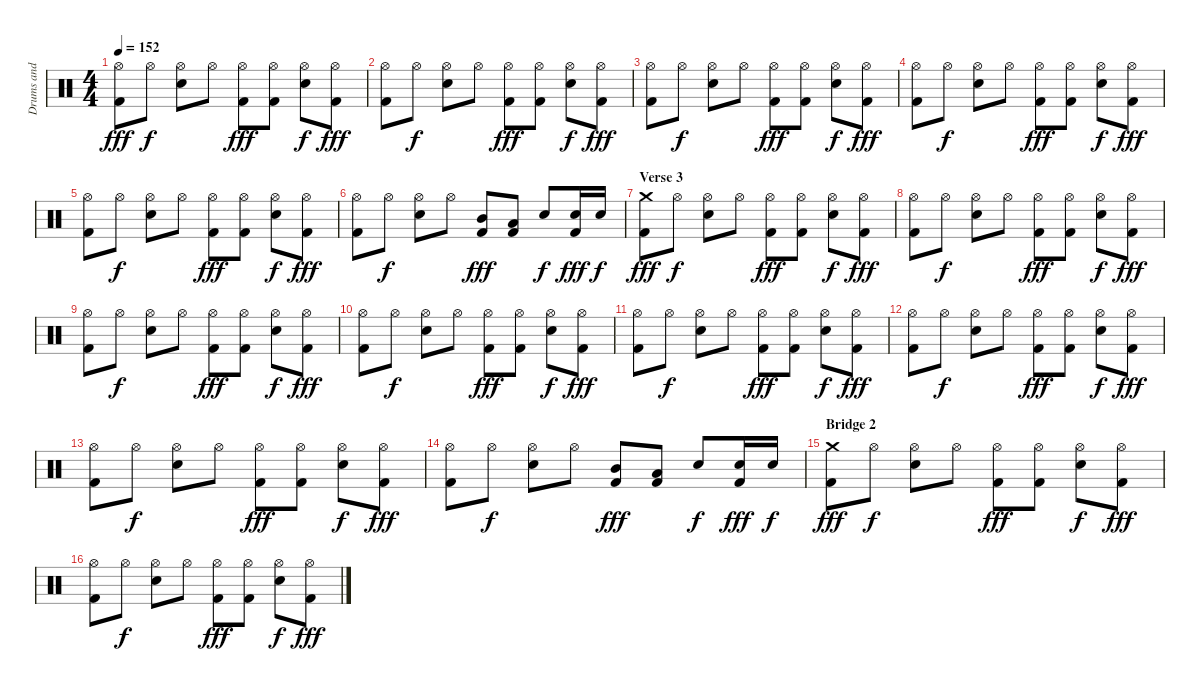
\track ("Drums and Percussion" "Drums and ") {instrument percussion}
\staff {score}
\articulation defaults
\ts (4 4)
\tempo 152
\clef neutral
\ks c
("Hi-Hat (open)" "Kick (hit) 2").8{dy fff} "Hi-Hat (open)".8{dy f} ("Hi-Hat (open)" "Snare (hit) 2").8 "Hi-Hat (open)".8 ("Hi-Hat (open)" "Kick (hit) 2").8{dy fff} ("Hi-Hat (open)" "Kick (hit) 2").8 ("Hi-Hat (open)" "Snare (hit) 2").8{dy f} ("Hi-Hat (open)" "Kick (hit) 2").8{dy fff} |
("Hi-Hat (open)" "Kick (hit) 2").8 "Hi-Hat (open)".8{dy f} ("Hi-Hat (open)" "Snare (hit) 2").8 "Hi-Hat (open)".8 ("Hi-Hat (open)" "Kick (hit) 2").8{dy fff} ("Hi-Hat (open)" "Kick (hit) 2").8 ("Hi-Hat (open)" "Snare (hit) 2").8{dy f} ("Hi-Hat (open)" "Kick (hit) 2").8{dy fff} |
("Hi-Hat (open)" "Kick (hit) 2").8 "Hi-Hat (open)".8{dy f} ("Hi-Hat (open)" "Snare (hit) 2").8 "Hi-Hat (open)".8 ("Hi-Hat (open)" "Kick (hit) 2").8{dy fff} ("Hi-Hat (open)" "Kick (hit) 2").8 ("Hi-Hat (open)" "Snare (hit) 2").8{dy f} ("Hi-Hat (open)" "Kick (hit) 2").8{dy fff} |
("Hi-Hat (open)" "Kick (hit) 2").8 "Hi-Hat (open)".8{dy f} ("Hi-Hat (open)" "Snare (hit) 2").8 "Hi-Hat (open)".8 ("Hi-Hat (open)" "Kick (hit) 2").8{dy fff} ("Hi-Hat (open)" "Kick (hit) 2").8 ("Hi-Hat (open)" "Snare (hit) 2").8{dy f} ("Hi-Hat (open)" "Kick (hit) 2").8{dy fff} |
("Hi-Hat (open)" "Kick (hit) 2").8 "Hi-Hat (open)".8{dy f} ("Hi-Hat (open)" "Snare (hit) 2").8 "Hi-Hat (open)".8 ("Hi-Hat (open)" "Kick (hit) 2").8{dy fff} ("Hi-Hat (open)" "Kick (hit) 2").8 ("Hi-Hat (open)" "Snare (hit) 2").8{dy f} ("Hi-Hat (open)" "Kick (hit) 2").8{dy fff} |
("Hi-Hat (open)" "Kick (hit) 2").8 "Hi-Hat (open)".8{dy f} ("Hi-Hat (open)" "Snare (hit) 2").8 "Hi-Hat (open)".8 ("Mid Tom (hit)" "Kick (hit) 2").8{dy fff} ("Low Tom (hit)" "Kick (hit) 2").8 "Snare (hit) 2".8{dy f} ("Snare (hit) 2" "Kick (hit) 2").16{dy fff} "Snare (hit) 2".16{dy f} |
\section ("" "Verse 3")
("Crash medium (hit)" "Kick (hit) 2").8{dy fff} "Hi-Hat (open)".8{dy f} ("Hi-Hat (open)" "Snare (hit) 2").8 "Hi-Hat (open)".8 ("Hi-Hat (open)" "Kick (hit) 2").8{dy fff} ("Hi-Hat (open)" "Kick (hit) 2").8 ("Hi-Hat (open)" "Snare (hit) 2").8{dy f} ("Hi-Hat (open)" "Kick (hit) 2").8{dy fff} |
("Hi-Hat (open)" "Kick (hit) 2").8 "Hi-Hat (open)".8{dy f} ("Hi-Hat (open)" "Snare (hit) 2").8 "Hi-Hat (open)".8 ("Hi-Hat (open)" "Kick (hit) 2").8{dy fff} ("Hi-Hat (open)" "Kick (hit) 2").8 ("Hi-Hat (open)" "Snare (hit) 2").8{dy f} ("Hi-Hat (open)" "Kick (hit) 2").8{dy fff} |
("Hi-Hat (open)" "Kick (hit) 2").8 "Hi-Hat (open)".8{dy f} ("Hi-Hat (open)" "Snare (hit) 2").8 "Hi-Hat (open)".8 ("Hi-Hat (open)" "Kick (hit) 2").8{dy fff} ("Hi-Hat (open)" "Kick (hit) 2").8 ("Hi-Hat (open)" "Snare (hit) 2").8{dy f} ("Hi-Hat (open)" "Kick (hit) 2").8{dy fff} |
("Hi-Hat (open)" "Kick (hit) 2").8 "Hi-Hat (open)".8{dy f} ("Hi-Hat (open)" "Snare (hit) 2").8 "Hi-Hat (open)".8 ("Hi-Hat (open)" "Kick (hit) 2").8{dy fff} ("Hi-Hat (open)" "Kick (hit) 2").8 ("Hi-Hat (open)" "Snare (hit) 2").8{dy f} ("Hi-Hat (open)" "Kick (hit) 2").8{dy fff} |
("Hi-Hat (open)" "Kick (hit) 2").8 "Hi-Hat (open)".8{dy f} ("Hi-Hat (open)" "Snare (hit) 2").8 "Hi-Hat (open)".8 ("Hi-Hat (open)" "Kick (hit) 2").8{dy fff} ("Hi-Hat (open)" "Kick (hit) 2").8 ("Hi-Hat (open)" "Snare (hit) 2").8{dy f} ("Hi-Hat (open)" "Kick (hit) 2").8{dy fff} |
("Hi-Hat (open)" "Kick (hit) 2").8 "Hi-Hat (open)".8{dy f} ("Hi-Hat (open)" "Snare (hit) 2").8 "Hi-Hat (open)".8 ("Hi-Hat (open)" "Kick (hit) 2").8{dy fff} ("Hi-Hat (open)" "Kick (hit) 2").8 ("Hi-Hat (open)" "Snare (hit) 2").8{dy f} ("Hi-Hat (open)" "Kick (hit) 2").8{dy fff} |
("Hi-Hat (open)" "Kick (hit) 2").8 "Hi-Hat (open)".8{dy f} ("Hi-Hat (open)" "Snare (hit) 2").8 "Hi-Hat (open)".8 ("Hi-Hat (open)" "Kick (hit) 2").8{dy fff} ("Hi-Hat (open)" "Kick (hit) 2").8 ("Hi-Hat (open)" "Snare (hit) 2").8{dy f} ("Hi-Hat (open)" "Kick (hit) 2").8{dy fff} |
("Hi-Hat (open)" "Kick (hit) 2").8 "Hi-Hat (open)".8{dy f} ("Hi-Hat (open)" "Snare (hit) 2").8 "Hi-Hat (open)".8 ("Mid Tom (hit)" "Kick (hit) 2").8{dy fff} ("Low Tom (hit)" "Kick (hit) 2").8 "Snare (hit) 2".8{dy f} ("Snare (hit) 2" "Kick (hit) 2").16{dy fff} "Snare (hit) 2".16{dy f} |
\section ("" "Bridge 2")
("Crash medium (hit)" "Kick (hit) 2").8{dy fff} "Hi-Hat (open)".8{dy f} ("Hi-Hat (open)" "Snare (hit) 2").8 "Hi-Hat (open)".8 ("Hi-Hat (open)" "Kick (hit) 2").8{dy fff} ("Hi-Hat (open)" "Kick (hit) 2").8 ("Hi-Hat (open)" "Snare (hit) 2").8{dy f} ("Hi-Hat (open)" "Kick (hit) 2").8{dy fff} |
("Hi-Hat (open)" "Kick (hit) 2").8 "Hi-Hat (open)".8{dy f} ("Hi-Hat (open)" "Snare (hit) 2").8 "Hi-Hat (open)".8 ("Hi-Hat (open)" "Kick (hit) 2").8{dy fff} ("Hi-Hat (open)" "Kick (hit) 2").8 ("Hi-Hat (open)" "Snare (hit) 2").8{dy f} ("Hi-Hat (open)" "Kick (hit) 2").8{dy fff}
